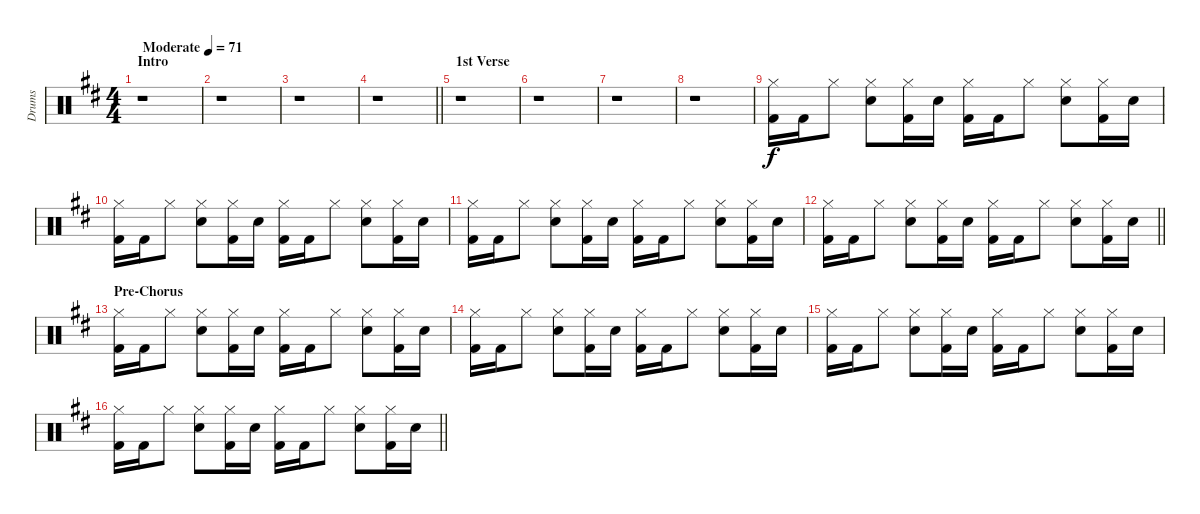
\track ("Drums" "Drums") {instrument percussion}
\staff {score}
\articulation defaults
\ts (4 4)
\section ("" "Intro")
\tempo (71 "Moderate")
\clef neutral
\ks bminor
r.1{dy f} |
r.1 |
r.1 |
\barLineRight lightlight
r.1 |
\section ("" "1st Verse")
r.1 |
r.1 |
r.1 |
r.1 |
("Hi-Hat (closed)" "Kick (hit) 2").16 "Kick (hit) 2".16 "Hi-Hat (closed)".8 ("Hi-Hat (closed)" "Snare (hit) 2").8 ("Hi-Hat (closed)" "Kick (hit) 2").16 "Snare (hit) 2".16 ("Hi-Hat (closed)" "Kick (hit) 2").16 "Kick (hit) 2".16 "Hi-Hat (closed)".8 ("Hi-Hat (closed)" "Snare (hit) 2").8 ("Hi-Hat (closed)" "Kick (hit) 2").16 "Snare (hit) 2".16 |
("Hi-Hat (closed)" "Kick (hit) 2").16 "Kick (hit) 2".16 "Hi-Hat (closed)".8 ("Hi-Hat (closed)" "Snare (hit) 2").8 ("Hi-Hat (closed)" "Kick (hit) 2").16 "Snare (hit) 2".16 ("Hi-Hat (closed)" "Kick (hit) 2").16 "Kick (hit) 2".16 "Hi-Hat (closed)".8 ("Hi-Hat (closed)" "Snare (hit) 2").8 ("Hi-Hat (closed)" "Kick (hit) 2").16 "Snare (hit) 2".16 |
("Hi-Hat (closed)" "Kick (hit) 2").16 "Kick (hit) 2".16 "Hi-Hat (closed)".8 ("Hi-Hat (closed)" "Snare (hit) 2").8 ("Hi-Hat (closed)" "Kick (hit) 2").16 "Snare (hit) 2".16 ("Hi-Hat (closed)" "Kick (hit) 2").16 "Kick (hit) 2".16 "Hi-Hat (closed)".8 ("Hi-Hat (closed)" "Snare (hit) 2").8 ("Hi-Hat (closed)" "Kick (hit) 2").16 "Snare (hit) 2".16 |
\barLineRight lightlight
("Hi-Hat (closed)" "Kick (hit) 2").16 "Kick (hit) 2".16 "Hi-Hat (closed)".8 ("Hi-Hat (closed)" "Snare (hit) 2").8 ("Hi-Hat (closed)" "Kick (hit) 2").16 "Snare (hit) 2".16 ("Hi-Hat (closed)" "Kick (hit) 2").16 "Kick (hit) 2".16 "Hi-Hat (closed)".8 ("Hi-Hat (closed)" "Snare (hit) 2").8 ("Hi-Hat (closed)" "Kick (hit) 2").16 "Snare (hit) 2".16 |
\section ("" "Pre-Chorus")
("Hi-Hat (closed)" "Kick (hit) 2").16 "Kick (hit) 2".16 "Hi-Hat (closed)".8 ("Hi-Hat (closed)" "Snare (hit) 2").8 ("Hi-Hat (closed)" "Kick (hit) 2").16 "Snare (hit) 2".16 ("Hi-Hat (closed)" "Kick (hit) 2").16 "Kick (hit) 2".16 "Hi-Hat (closed)".8 ("Hi-Hat (closed)" "Snare (hit) 2").8 ("Hi-Hat (closed)" "Kick (hit) 2").16 "Snare (hit) 2".16 |
("Hi-Hat (closed)" "Kick (hit) 2").16 "Kick (hit) 2".16 "Hi-Hat (closed)".8 ("Hi-Hat (closed)" "Snare (hit) 2").8 ("Hi-Hat (closed)" "Kick (hit) 2").16 "Snare (hit) 2".16 ("Hi-Hat (closed)" "Kick (hit) 2").16 "Kick (hit) 2".16 "Hi-Hat (closed)".8 ("Hi-Hat (closed)" "Snare (hit) 2").8 ("Hi-Hat (closed)" "Kick (hit) 2").16 "Snare (hit) 2".16 |
("Hi-Hat (closed)" "Kick (hit) 2").16 "Kick (hit) 2".16 "Hi-Hat (closed)".8 ("Hi-Hat (closed)" "Snare (hit) 2").8 ("Hi-Hat (closed)" "Kick (hit) 2").16 "Snare (hit) 2".16 ("Hi-Hat (closed)" "Kick (hit) 2").16 "Kick (hit) 2".16 "Hi-Hat (closed)".8 ("Hi-Hat (closed)" "Snare (hit) 2").8 ("Hi-Hat (closed)" "Kick (hit) 2").16 "Snare (hit) 2".16 |
\barLineRight lightlight
("Hi-Hat (closed)" "Kick (hit) 2").16 "Kick (hit) 2".16 "Hi-Hat (closed)".8 ("Hi-Hat (closed)" "Snare (hit) 2").8 ("Hi-Hat (closed)" "Kick (hit) 2").16 "Snare (hit) 2".16 ("Hi-Hat (closed)" "Kick (hit) 2").16 "Kick (hit) 2".16 "Hi-Hat (closed)".8 ("Hi-Hat (closed)" "Snare (hit) 2").8 ("Hi-Hat (closed)" "Kick (hit) 2").16 "Snare (hit) 2".16
